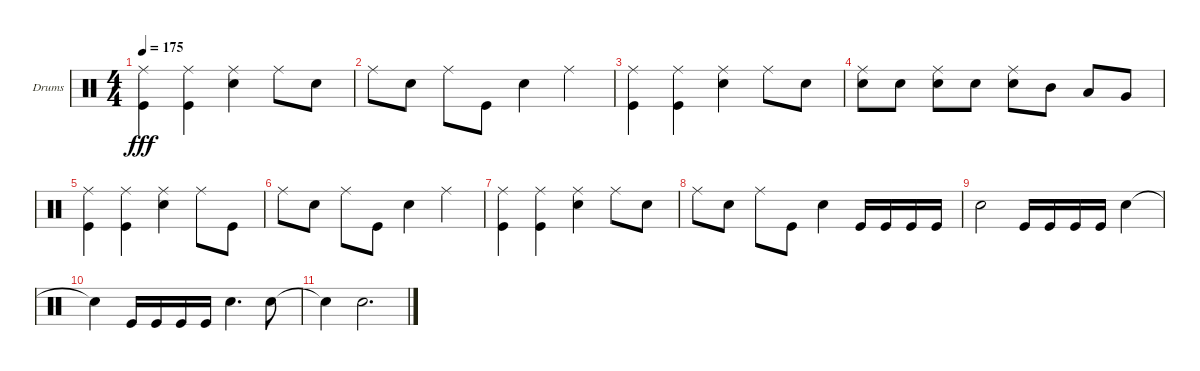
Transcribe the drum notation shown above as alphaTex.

\defaultSystemsLayout 4
\bracketExtendMode groupsimilarinstruments
\firstSystemTrackNameOrientation horizontal
\otherSystemsTrackNameOrientation horizontal
\track ("Drumkit" "Drums") {instrument percussion}
\staff {score}
\articulation defaults
\ts (4 4)
\tempo 175
\clef neutral
\ks c
("Kick (hit)" "Ride (middle)").4{dy fff} ("Kick (hit)" "Ride (middle)").4 ("Snare (hit) 2" "Ride (middle)").4 "Ride (middle)".8 "Snare (hit) 2".8 |
"Ride (middle)".8 "Snare (hit) 2".8 "Ride (middle)".8 "Kick (hit)".8 "Snare (hit) 2".4 "Ride (middle)".4 |
("Kick (hit)" "Ride (middle)").4 ("Kick (hit)" "Ride (middle)").4 ("Snare (hit) 2" "Ride (middle)").4 "Ride (middle)".8 "Snare (hit) 2".8 |
("Ride (middle)" "Snare (hit) 2").8 "Snare (hit) 2".8 ("Ride (middle)" "Snare (hit) 2").8 "Snare (hit) 2".8 ("Snare (hit) 2" "Ride (middle)").8 "Mid Tom (hit)".8 "Low Tom (hit)".8 "Very Low Tom (hit)".8 |
("Kick (hit)" "Ride (middle)").4 ("Kick (hit)" "Ride (middle)").4 ("Snare (hit) 2" "Ride (middle)").4 "Ride (middle)".8 "Kick (hit)".8 |
"Ride (middle)".8 "Snare (hit) 2".8 "Ride (middle)".8 "Kick (hit)".8 "Snare (hit) 2".4 "Ride (middle)".4 |
("Kick (hit)" "Ride (middle)").4 ("Kick (hit)" "Ride (middle)").4 ("Snare (hit) 2" "Ride (middle)").4 "Ride (middle)".8 "Snare (hit) 2".8 |
"Ride (middle)".8 "Snare (hit) 2".8 "Ride (middle)".8 "Kick (hit)".8 "Snare (hit) 2".4 "Kick (hit)".16 "Kick (hit)".16 "Kick (hit)".16 "Kick (hit)".16 |
"Snare (hit) 2".2 "Kick (hit)".16 "Kick (hit)".16 "Kick (hit)".16 "Kick (hit)".16 "Snare (hit) 2".4 |
"Snare (hit) 2"{t}.4 "Kick (hit)".16 "Kick (hit)".16 "Kick (hit)".16 "Kick (hit)".16 "Snare (hit) 2".4{d} "Snare (hit) 2".8 |
"Snare (hit) 2"{t}.4 "Snare (hit) 2".2{d}
